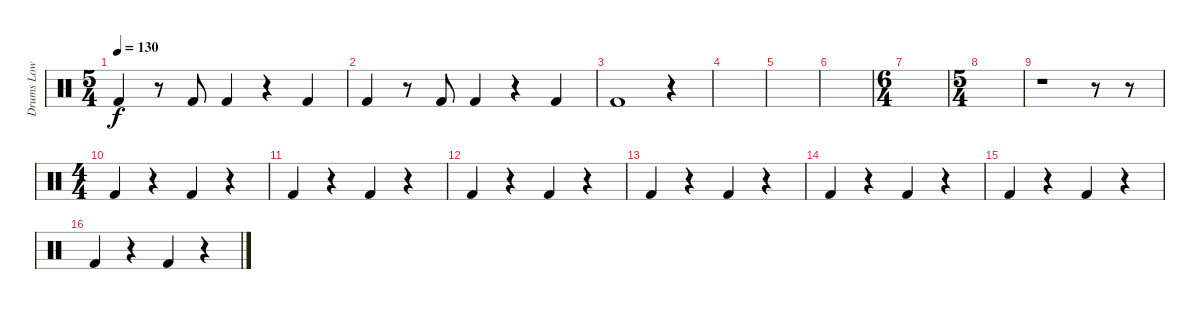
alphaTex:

\track ("Drums Low" "Drums Low") {instrument percussion}
\staff {score}
\articulation defaults
\ts (5 4)
\tempo 130
\clef neutral
\ks c "Kick (hit) 2".4{dy f}
r.8 "Kick (hit) 2".8 "Kick (hit) 2".4 r.4 "Kick (hit) 2".4 |
"Kick (hit) 2".4 r.8 "Kick (hit) 2".8 "Kick (hit) 2".4 r.4 "Kick (hit) 2".4 |
"Kick (hit) 2".1 r.4 |
|
|
|
\ts (6 4)
|
\ts (5 4)
|
r.1 r.8{volume 8} r.8 |
\ts (4 4)
"Kick (hit) 2".4 r.4 "Kick (hit) 2".4 r.4 |
"Kick (hit) 2".4 r.4 "Kick (hit) 2".4 r.4 |
"Kick (hit) 2".4 r.4 "Kick (hit) 2".4 r.4 |
"Kick (hit) 2".4 r.4 "Kick (hit) 2".4 r.4 |
"Kick (hit) 2".4 r.4 "Kick (hit) 2".4 r.4 |
"Kick (hit) 2".4 r.4 "Kick (hit) 2".4 r.4 |
"Kick (hit) 2".4 r.4 "Kick (hit) 2".4 r.4
